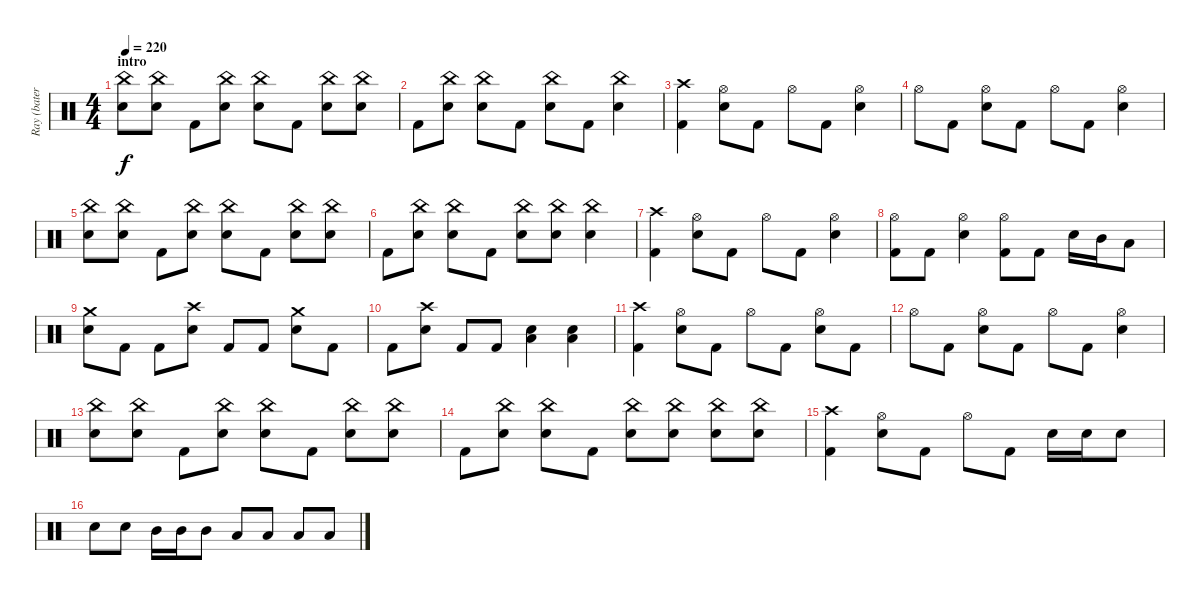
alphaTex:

\track ("Ray (batería)" "Ray (bater") {instrument percussion}
\staff {score}
\articulation defaults
\ts (4 4)
\section ("" "intro")
\tempo 220
\clef neutral
\ks c
("China (hit)" "Snare (hit) 2").8{dy f} ("China (hit)" "Snare (hit) 2").8 "Kick (hit) 2".8 ("China (hit)" "Snare (hit) 2").8 ("China (hit)" "Snare (hit) 2").8 "Kick (hit) 2".8 ("China (hit)" "Snare (hit) 2").8 ("China (hit)" "Snare (hit) 2").8 |
"Kick (hit) 2".8 ("China (hit)" "Snare (hit) 2").8 ("China (hit)" "Snare (hit) 2").8 "Kick (hit) 2".8 ("China (hit)" "Snare (hit) 2").8 "Kick (hit) 2".8 ("China (hit)" "Snare (hit) 2").4 |
("Crash high (hit)" "Kick (hit) 2").4 ("Hi-Hat (open)" "Snare (hit) 2").8 "Kick (hit) 2".8 "Hi-Hat (open)".8 "Kick (hit) 2".8 ("Hi-Hat (open)" "Snare (hit) 2").4 |
"Hi-Hat (open)".8 "Kick (hit) 2".8 ("Hi-Hat (open)" "Snare (hit) 2").8 "Kick (hit) 2".8 "Hi-Hat (open)".8 "Kick (hit) 2".8 ("Hi-Hat (open)" "Snare (hit) 2").4 |
("China (hit)" "Snare (hit) 2").8 ("China (hit)" "Snare (hit) 2").8 "Kick (hit) 2".8 ("China (hit)" "Snare (hit) 2").8 ("China (hit)" "Snare (hit) 2").8 "Kick (hit) 2".8 ("China (hit)" "Snare (hit) 2").8 ("China (hit)" "Snare (hit) 2").8 |
"Kick (hit) 2".8 ("China (hit)" "Snare (hit) 2").8 ("China (hit)" "Snare (hit) 2").8 "Kick (hit) 2".8 ("China (hit)" "Snare (hit) 2").8 ("China (hit)" "Snare (hit) 2").8 ("China (hit)" "Snare (hit) 2").4 |
("Crash high (hit)" "Kick (hit) 2").4 ("Hi-Hat (open)" "Snare (hit) 2").8 "Kick (hit) 2".8 "Hi-Hat (open)".8 "Kick (hit) 2".8 ("Hi-Hat (open)" "Snare (hit) 2").4 |
("Hi-Hat (open)" "Kick (hit) 2").8 "Kick (hit) 2".8 ("Hi-Hat (open)" "Snare (hit) 2").4 ("Hi-Hat (open)" "Kick (hit) 2").8 "Kick (hit) 2".8 "Snare (hit) 2".16 "Mid Tom (hit)".16 "Low Tom (hit)".8 |
("Crash medium (hit)" "Snare (hit) 2").8 "Kick (hit) 2".8 "Kick (hit) 2".8 ("Crash high (hit)" "Snare (hit) 2").8 "Kick (hit) 2".8 "Kick (hit) 2".8 ("Crash medium (hit)" "Snare (hit) 2").8 "Kick (hit) 2".8 |
"Kick (hit) 2".8 ("Crash high (hit)" "Snare (hit) 2").8 "Kick (hit) 2".8 "Kick (hit) 2".8 ("Snare (hit) 2" "Low Tom (hit)").4 ("Snare (hit) 2" "Low Tom (hit)").4 |
("Crash high (hit)" "Kick (hit) 2").4 ("Hi-Hat (open)" "Snare (hit) 2").8 "Kick (hit) 2".8 "Hi-Hat (open)".8 "Kick (hit) 2".8 ("Hi-Hat (open)" "Snare (hit) 2").8 "Kick (hit) 2".8 |
"Hi-Hat (open)".8 "Kick (hit) 2".8 ("Hi-Hat (open)" "Snare (hit) 2").8 "Kick (hit) 2".8 "Hi-Hat (open)".8 "Kick (hit) 2".8 ("Hi-Hat (open)" "Snare (hit) 2").4 |
("China (hit)" "Snare (hit) 2").8 ("China (hit)" "Snare (hit) 2").8 "Kick (hit) 2".8 ("China (hit)" "Snare (hit) 2").8 ("China (hit)" "Snare (hit) 2").8 "Kick (hit) 2".8 ("China (hit)" "Snare (hit) 2").8 ("China (hit)" "Snare (hit) 2").8 |
"Kick (hit) 2".8 ("China (hit)" "Snare (hit) 2").8 ("China (hit)" "Snare (hit) 2").8 "Kick (hit) 2".8 ("China (hit)" "Snare (hit) 2").8 ("China (hit)" "Snare (hit) 2").8 ("China (hit)" "Snare (hit) 2").8 ("China (hit)" "Snare (hit) 2").8 |
("Crash high (hit)" "Kick (hit) 2").4 ("Hi-Hat (open)" "Snare (hit) 2").8 "Kick (hit) 2".8 "Hi-Hat (open)".8 "Kick (hit) 2".8 "Snare (hit) 2".16 "Snare (hit) 2".16 "Snare (hit) 2".8 |
"Snare (hit) 2".8 "Snare (hit) 2".8 "Mid Tom (hit)".16 "Mid Tom (hit)".16 "Mid Tom (hit)".8 "Low Tom (hit)".8 "Low Tom (hit)".8 "Low Floor Tom (hit)".8 "Low Floor Tom (hit)".8
